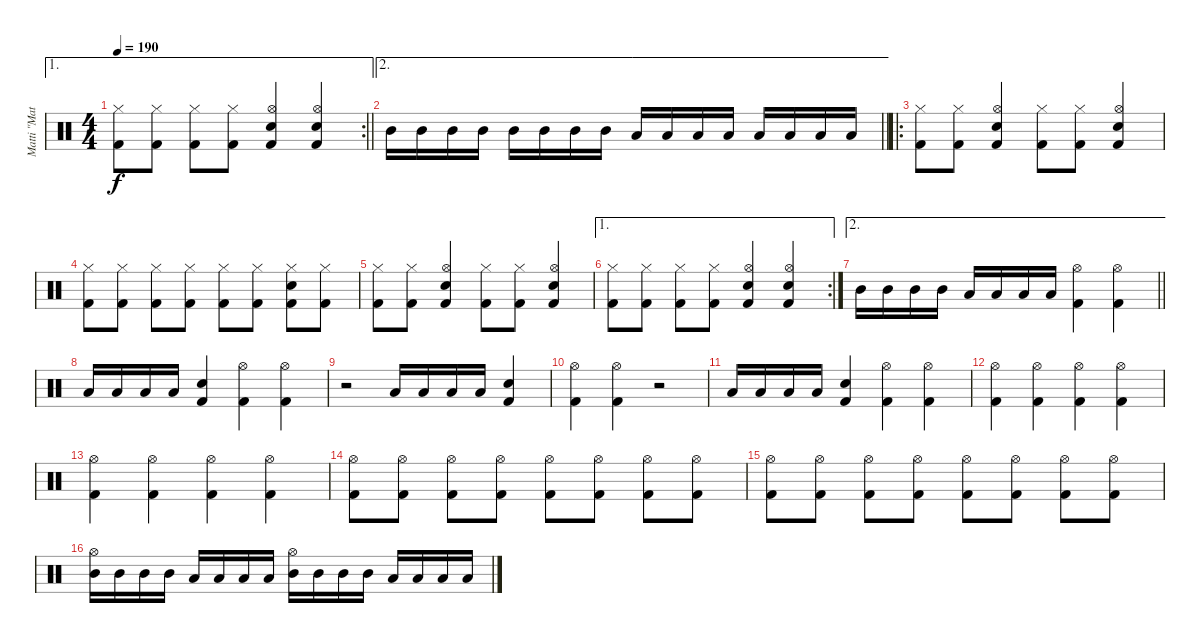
\track ("Matti \"Matson\" Johansson" "Matti \"Mat") {instrument percussion}
\staff {score}
\articulation defaults
\ae 1
\rc 2
\ts (4 4)
\tempo 190
\clef neutral
\barLineRight lightlight
\ks c
("Hi-Hat (closed)" "Kick (hit) 2").8{dy f} ("Hi-Hat (closed)" "Kick (hit) 2").8 ("Hi-Hat (closed)" "Kick (hit) 2").8 ("Hi-Hat (closed)" "Kick (hit) 2").8 ("Hi-Hat (open)" "Snare (hit) 2" "Kick (hit) 2").4 ("Hi-Hat (open)" "Snare (hit) 2" "Kick (hit) 2").4 |
\ae 2
\barLineRight lightlight "Mid Tom (hit)".16 "Mid Tom (hit)".16 "Mid Tom (hit)".16 "Mid Tom (hit)".16 "Mid Tom (hit)".16 "Mid Tom (hit)".16 "Mid Tom (hit)".16 "Mid Tom (hit)".16 "Low Tom (hit)".16 "Low Tom (hit)".16 "Low Tom (hit)".16 "Low Tom (hit)".16 "Low Tom (hit)".16 "Low Tom (hit)".16 "Low Tom (hit)".16 "Low Tom (hit)".16
|
\ro
("Hi-Hat (closed)" "Kick (hit) 2").8 ("Hi-Hat (closed)" "Kick (hit) 2").8 ("Hi-Hat (open)" "Snare (hit) 2" "Kick (hit) 2").4 ("Hi-Hat (closed)" "Kick (hit) 2").8 ("Hi-Hat (closed)" "Kick (hit) 2").8 ("Hi-Hat (open)" "Snare (hit) 2" "Kick (hit) 2").4 |
("Hi-Hat (closed)" "Kick (hit) 2").8 ("Hi-Hat (closed)" "Kick (hit) 2").8 ("Hi-Hat (closed)" "Kick (hit) 2").8 ("Hi-Hat (closed)" "Kick (hit) 2").8 ("Hi-Hat (closed)" "Kick (hit) 2").8 ("Hi-Hat (closed)" "Kick (hit) 2").8 ("Hi-Hat (closed)" "Snare (hit) 2" "Kick (hit) 2").8 ("Hi-Hat (closed)" "Kick (hit) 2").8 |
("Hi-Hat (closed)" "Kick (hit) 2").8 ("Hi-Hat (closed)" "Kick (hit) 2").8 ("Hi-Hat (open)" "Snare (hit) 2" "Kick (hit) 2").4 ("Hi-Hat (closed)" "Kick (hit) 2").8 ("Hi-Hat (closed)" "Kick (hit) 2").8 ("Hi-Hat (open)" "Snare (hit) 2" "Kick (hit) 2").4 |
\ae 1
\rc 2
("Hi-Hat (closed)" "Kick (hit) 2").8 ("Hi-Hat (closed)" "Kick (hit) 2").8 ("Hi-Hat (closed)" "Kick (hit) 2").8 ("Hi-Hat (closed)" "Kick (hit) 2").8 ("Hi-Hat (open)" "Snare (hit) 2" "Kick (hit) 2").4 ("Hi-Hat (open)" "Snare (hit) 2" "Kick (hit) 2").4 |
\ae 2
\barLineRight lightlight "Mid Tom (hit)".16 "Mid Tom (hit)".16 "Mid Tom (hit)".16 "Mid Tom (hit)".16 "Low Tom (hit)".16 "Low Tom (hit)".16 "Low Tom (hit)".16 "Low Tom (hit)".16
("Hi-Hat (open)" "Kick (hit) 2").4 ("Hi-Hat (open)" "Kick (hit) 2").4 |
\section ("" "")
"Low Tom (hit)".16 "Low Tom (hit)".16 "Low Tom (hit)".16 "Low Tom (hit)".16 ("Snare (hit) 2" "Kick (hit) 2").4 ("Hi-Hat (open)" "Kick (hit) 2").4 ("Hi-Hat (open)" "Kick (hit) 2").4 |
r.2 "Low Tom (hit)".16 "Low Tom (hit)".16 "Low Tom (hit)".16 "Low Tom (hit)".16 ("Snare (hit) 2" "Kick (hit) 2").4 |
("Hi-Hat (open)" "Kick (hit) 2").4 ("Hi-Hat (open)" "Kick (hit) 2").4 r.2 |
"Low Tom (hit)".16 "Low Tom (hit)".16 "Low Tom (hit)".16 "Low Tom (hit)".16 ("Snare (hit) 2" "Kick (hit) 2").4 ("Hi-Hat (open)" "Kick (hit) 2").4 ("Hi-Hat (open)" "Kick (hit) 2").4 |
("Hi-Hat (open)" "Kick (hit) 2").4 ("Hi-Hat (open)" "Kick (hit) 2").4 ("Hi-Hat (open)" "Kick (hit) 2").4 ("Hi-Hat (open)" "Kick (hit) 2").4 |
("Hi-Hat (open)" "Kick (hit) 2").4 ("Hi-Hat (open)" "Kick (hit) 2").4 ("Hi-Hat (open)" "Kick (hit) 2").4 ("Hi-Hat (open)" "Kick (hit) 2").4 |
("Hi-Hat (open)" "Kick (hit) 2").8 ("Hi-Hat (open)" "Kick (hit) 2").8 ("Hi-Hat (open)" "Kick (hit) 2").8 ("Hi-Hat (open)" "Kick (hit) 2").8 ("Hi-Hat (open)" "Kick (hit) 2").8 ("Hi-Hat (open)" "Kick (hit) 2").8 ("Hi-Hat (open)" "Kick (hit) 2").8 ("Hi-Hat (open)" "Kick (hit) 2").8 |
("Hi-Hat (open)" "Kick (hit) 2").8 ("Hi-Hat (open)" "Kick (hit) 2").8 ("Hi-Hat (open)" "Kick (hit) 2").8 ("Hi-Hat (open)" "Kick (hit) 2").8 ("Hi-Hat (open)" "Kick (hit) 2").8 ("Hi-Hat (open)" "Kick (hit) 2").8 ("Hi-Hat (open)" "Kick (hit) 2").8 ("Hi-Hat (open)" "Kick (hit) 2").8 |
("Hi-Hat (open)" "Mid Tom (hit)").16 "Mid Tom (hit)".16 "Mid Tom (hit)".16 "Mid Tom (hit)".16 "Low Tom (hit)".16 "Low Tom (hit)".16 "Low Tom (hit)".16 "Low Tom (hit)".16 ("Hi-Hat (open)" "Mid Tom (hit)").16 "Mid Tom (hit)".16 "Mid Tom (hit)".16 "Mid Tom (hit)".16 "Low Tom (hit)".16 "Low Tom (hit)".16 "Low Tom (hit)".16 "Low Tom (hit)".16
